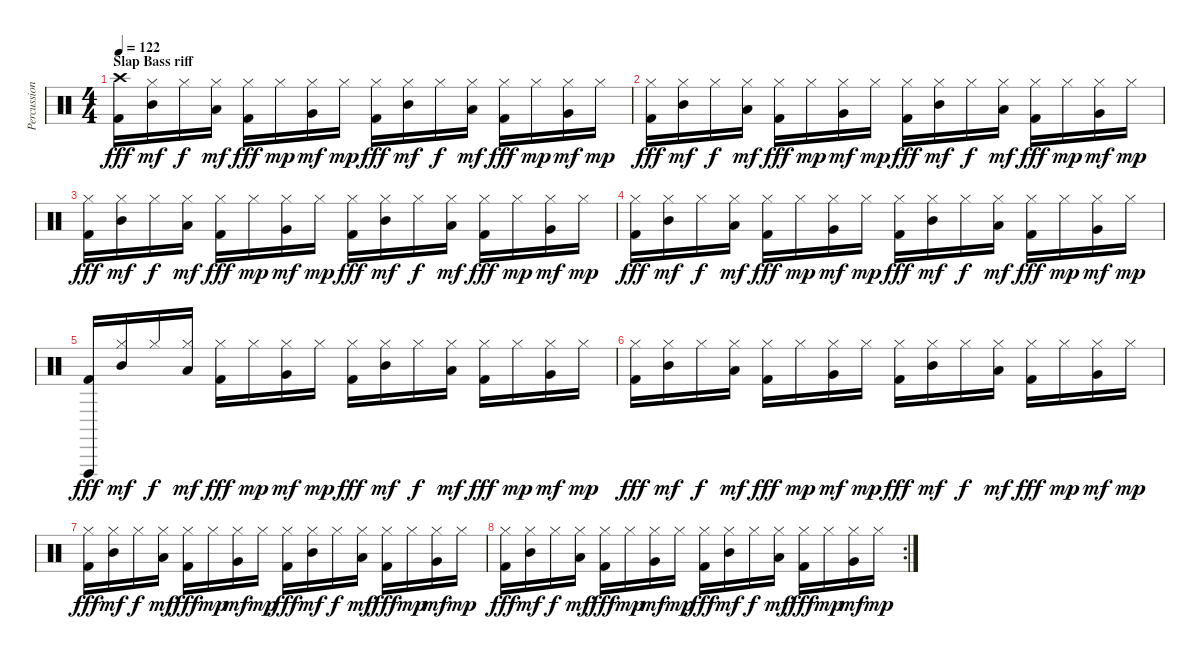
\track ("Percussions" "Percussion") {instrument percussion}
\staff {score}
\articulation defaults
\ts (4 4)
\section ("" "Slap Bass riff")
\tempo 122
\clef neutral
\ks c
("Crash high (hit)" "Kick (hit) 2").16{dy fff} ("Hi-Hat (closed)" "Mid Tom (hit)").16{dy mf} "Hi-Hat (closed)".16{dy f} ("Hi-Hat (closed)" "Low Tom (hit)").16{dy mf} ("Hi-Hat (closed)" "Kick (hit) 2").16{dy fff} "Hi-Hat (closed)".16{dy mp} ("Hi-Hat (closed)" "Very Low Tom (hit)").16{dy mf} "Hi-Hat (closed)".16{dy mp} ("Hi-Hat (closed)" "Kick (hit) 2").16{dy fff} ("Hi-Hat (closed)" "Mid Tom (hit)").16{dy mf} "Hi-Hat (closed)".16{dy f} ("Hi-Hat (closed)" "Low Tom (hit)").16{dy mf} ("Hi-Hat (closed)" "Kick (hit) 2").16{dy fff} "Hi-Hat (closed)".16{dy mp} ("Hi-Hat (closed)" "Very Low Tom (hit)").16{dy mf} "Hi-Hat (closed)".16{dy mp} |
("Hi-Hat (closed)" "Kick (hit) 2").16{dy fff} ("Hi-Hat (closed)" "Mid Tom (hit)").16{dy mf} "Hi-Hat (closed)".16{dy f} ("Hi-Hat (closed)" "Low Tom (hit)").16{dy mf} ("Hi-Hat (closed)" "Kick (hit) 2").16{dy fff} "Hi-Hat (closed)".16{dy mp} ("Hi-Hat (closed)" "Very Low Tom (hit)").16{dy mf} "Hi-Hat (closed)".16{dy mp} ("Hi-Hat (closed)" "Kick (hit) 2").16{dy fff} ("Hi-Hat (closed)" "Mid Tom (hit)").16{dy mf} "Hi-Hat (closed)".16{dy f} ("Hi-Hat (closed)" "Low Tom (hit)").16{dy mf} ("Hi-Hat (closed)" "Kick (hit) 2").16{dy fff} "Hi-Hat (closed)".16{dy mp} ("Hi-Hat (closed)" "Very Low Tom (hit)").16{dy mf} "Hi-Hat (closed)".16{dy mp} |
("Hi-Hat (closed)" "Kick (hit) 2").16{dy fff} ("Hi-Hat (closed)" "Mid Tom (hit)").16{dy mf} "Hi-Hat (closed)".16{dy f} ("Hi-Hat (closed)" "Low Tom (hit)").16{dy mf} ("Hi-Hat (closed)" "Kick (hit) 2").16{dy fff} "Hi-Hat (closed)".16{dy mp} ("Hi-Hat (closed)" "Very Low Tom (hit)").16{dy mf} "Hi-Hat (closed)".16{dy mp} ("Hi-Hat (closed)" "Kick (hit) 2").16{dy fff} ("Hi-Hat (closed)" "Mid Tom (hit)").16{dy mf} "Hi-Hat (closed)".16{dy f} ("Hi-Hat (closed)" "Low Tom (hit)").16{dy mf} ("Hi-Hat (closed)" "Kick (hit) 2").16{dy fff} "Hi-Hat (closed)".16{dy mp} ("Hi-Hat (closed)" "Very Low Tom (hit)").16{dy mf} "Hi-Hat (closed)".16{dy mp} |
("Hi-Hat (closed)" "Kick (hit) 2").16{dy fff} ("Hi-Hat (closed)" "Mid Tom (hit)").16{dy mf} "Hi-Hat (closed)".16{dy f} ("Hi-Hat (closed)" "Low Tom (hit)").16{dy mf} ("Hi-Hat (closed)" "Kick (hit) 2").16{dy fff} "Hi-Hat (closed)".16{dy mp} ("Hi-Hat (closed)" "Very Low Tom (hit)").16{dy mf} "Hi-Hat (closed)".16{dy mp} ("Hi-Hat (closed)" "Kick (hit) 2").16{dy fff} ("Hi-Hat (closed)" "Mid Tom (hit)").16{dy mf} "Hi-Hat (closed)".16{dy f} ("Hi-Hat (closed)" "Low Tom (hit)").16{dy mf} ("Hi-Hat (closed)" "Kick (hit) 2").16{dy fff} "Hi-Hat (closed)".16{dy mp} ("Hi-Hat (closed)" "Very Low Tom (hit)").16{dy mf} "Hi-Hat (closed)".16{dy mp} |
("Vibraslap (hit)" "Kick (hit) 2").16{dy fff} ("Hi-Hat (closed)" "Mid Tom (hit)").16{dy mf} "Hi-Hat (closed)".16{dy f} ("Hi-Hat (closed)" "Low Tom (hit)").16{dy mf} ("Hi-Hat (closed)" "Kick (hit) 2").16{dy fff} "Hi-Hat (closed)".16{dy mp} ("Hi-Hat (closed)" "Very Low Tom (hit)").16{dy mf} "Hi-Hat (closed)".16{dy mp} ("Hi-Hat (closed)" "Kick (hit) 2").16{dy fff} ("Hi-Hat (closed)" "Mid Tom (hit)").16{dy mf} "Hi-Hat (closed)".16{dy f} ("Hi-Hat (closed)" "Low Tom (hit)").16{dy mf} ("Hi-Hat (closed)" "Kick (hit) 2").16{dy fff} "Hi-Hat (closed)".16{dy mp} ("Hi-Hat (closed)" "Very Low Tom (hit)").16{dy mf} "Hi-Hat (closed)".16{dy mp} |
("Hi-Hat (closed)" "Kick (hit) 2").16{dy fff} ("Hi-Hat (closed)" "Mid Tom (hit)").16{dy mf} "Hi-Hat (closed)".16{dy f} ("Hi-Hat (closed)" "Low Tom (hit)").16{dy mf} ("Hi-Hat (closed)" "Kick (hit) 2").16{dy fff} "Hi-Hat (closed)".16{dy mp} ("Hi-Hat (closed)" "Very Low Tom (hit)").16{dy mf} "Hi-Hat (closed)".16{dy mp} ("Hi-Hat (closed)" "Kick (hit) 2").16{dy fff} ("Hi-Hat (closed)" "Mid Tom (hit)").16{dy mf} "Hi-Hat (closed)".16{dy f} ("Hi-Hat (closed)" "Low Tom (hit)").16{dy mf} ("Hi-Hat (closed)" "Kick (hit) 2").16{dy fff} "Hi-Hat (closed)".16{dy mp} ("Hi-Hat (closed)" "Very Low Tom (hit)").16{dy mf} "Hi-Hat (closed)".16{dy mp} |
("Hi-Hat (closed)" "Kick (hit) 2").16{dy fff} ("Hi-Hat (closed)" "Mid Tom (hit)").16{dy mf} "Hi-Hat (closed)".16{dy f} ("Hi-Hat (closed)" "Low Tom (hit)").16{dy mf} ("Hi-Hat (closed)" "Kick (hit) 2").16{dy fff} "Hi-Hat (closed)".16{dy mp} ("Hi-Hat (closed)" "Very Low Tom (hit)").16{dy mf} "Hi-Hat (closed)".16{dy mp} ("Hi-Hat (closed)" "Kick (hit) 2").16{dy fff} ("Hi-Hat (closed)" "Mid Tom (hit)").16{dy mf} "Hi-Hat (closed)".16{dy f} ("Hi-Hat (closed)" "Low Tom (hit)").16{dy mf} ("Hi-Hat (closed)" "Kick (hit) 2").16{dy fff} "Hi-Hat (closed)".16{dy mp} ("Hi-Hat (closed)" "Very Low Tom (hit)").16{dy mf} "Hi-Hat (closed)".16{dy mp} |
\rc 2
("Hi-Hat (closed)" "Kick (hit) 2").16{dy fff} ("Hi-Hat (closed)" "Mid Tom (hit)").16{dy mf} "Hi-Hat (closed)".16{dy f} ("Hi-Hat (closed)" "Low Tom (hit)").16{dy mf} ("Hi-Hat (closed)" "Kick (hit) 2").16{dy fff} "Hi-Hat (closed)".16{dy mp} ("Hi-Hat (closed)" "Very Low Tom (hit)").16{dy mf} "Hi-Hat (closed)".16{dy mp} ("Hi-Hat (closed)" "Kick (hit) 2").16{dy fff} ("Hi-Hat (closed)" "Mid Tom (hit)").16{dy mf} "Hi-Hat (closed)".16{dy f} ("Hi-Hat (closed)" "Low Tom (hit)").16{dy mf} ("Hi-Hat (closed)" "Kick (hit) 2").16{dy fff} "Hi-Hat (closed)".16{dy mp} ("Hi-Hat (closed)" "Very Low Tom (hit)").16{dy mf} "Hi-Hat (closed)".16{dy mp}
